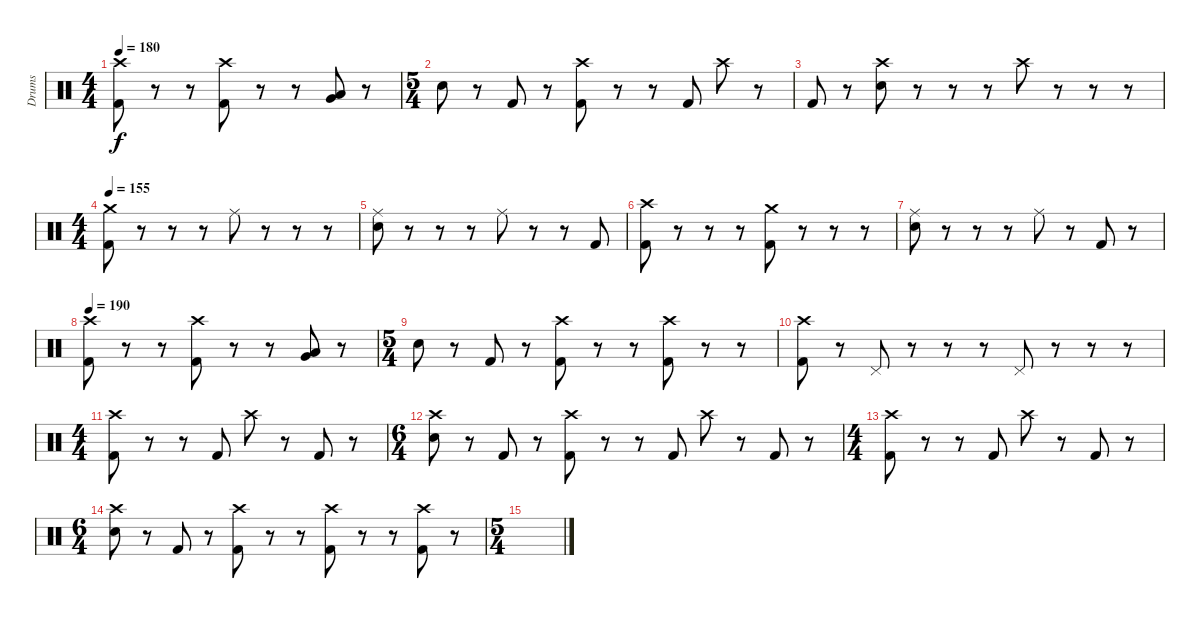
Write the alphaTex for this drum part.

\track ("Drums" "Drums") {instrument percussion}
\staff {score}
\articulation defaults
\ts (4 4)
\tempo 180
\clef neutral
\ks c
("Kick (hit) 2" "Crash high (hit)").8{dy f} r.8 r.8 ("Kick (hit) 2" "Crash high (hit)").8 r.8 r.8 ("Low Floor Tom (hit)" "Very Low Tom (hit)").8 r.8 |
\ts (5 4)
"Electric Snare (hit)".8 r.8 "Kick (hit) 2".8 r.8 ("Kick (hit) 2" "Crash high (hit)").8 r.8 r.8 "Kick (hit) 2".8 "Crash high (hit)".8 r.8 |
"Kick (hit) 2".8 r.8 ("Electric Snare (hit)" "Crash high (hit)").8 r.8 r.8 r.8 "Crash high (hit)".8 r.8 r.8 r.8 |
\ts (4 4)
\tempo 155
("Crash medium (hit)" "Kick (hit) 2").8 r.8 r.8 r.8 "Ride (middle)".8 r.8 r.8 r.8 |
("Ride (middle)" "Electric Snare (hit)").8 r.8 r.8 r.8 "Ride (middle)".8 r.8 r.8 "Kick (hit) 2".8 |
("Crash high (hit)" "Kick (hit) 2").8 r.8 r.8 r.8 ("Crash medium (hit)" "Kick (hit) 2").8 r.8 r.8 r.8 |
("Ride (middle)" "Electric Snare (hit)").8 r.8 r.8 r.8 "Ride (middle)".8 r.8 "Kick (hit) 2".8 r.8 |
\tempo 190
("Kick (hit) 2" "Crash high (hit)").8 r.8 r.8 ("Kick (hit) 2" "Crash high (hit)").8 r.8 r.8 ("Low Floor Tom (hit)" "Very Low Tom (hit)").8 r.8 |
\ts (5 4)
"Electric Snare (hit)".8 r.8 "Kick (hit) 2".8 r.8 ("Kick (hit) 2" "Crash high (hit)").8 r.8 r.8 ("Kick (hit) 2" "Crash high (hit)").8 r.8 r.8 |
("Kick (hit) 2" "Crash high (hit)").8 r.8 "Pedal Hi-Hat (hit)".8 r.8 r.8 r.8 "Pedal Hi-Hat (hit)".8 r.8 r.8 r.8 |
\ts (4 4)
("Kick (hit) 2" "Crash high (hit)").8 r.8 r.8 "Kick (hit) 2".8 "Crash high (hit)".8 r.8 "Kick (hit) 2".8 r.8 |
\ts (6 4)
("Electric Snare (hit)" "Crash high (hit)").8 r.8 "Kick (hit) 2".8 r.8 ("Kick (hit) 2" "Crash high (hit)").8 r.8 r.8 "Kick (hit) 2".8 "Crash high (hit)".8 r.8 "Kick (hit) 2".8 r.8 |
\ts (4 4)
("Kick (hit) 2" "Crash high (hit)").8 r.8 r.8 "Kick (hit) 2".8 "Crash high (hit)".8 r.8 "Kick (hit) 2".8 r.8 |
\ts (6 4)
("Electric Snare (hit)" "Crash high (hit)").8 r.8 "Kick (hit) 2".8 r.8 ("Kick (hit) 2" "Crash high (hit)").8 r.8 r.8 ("Kick (hit) 2" "Crash high (hit)").8 r.8 r.8 ("Kick (hit) 2" "Crash high (hit)").8 r.8 |
\ts (5 4)
